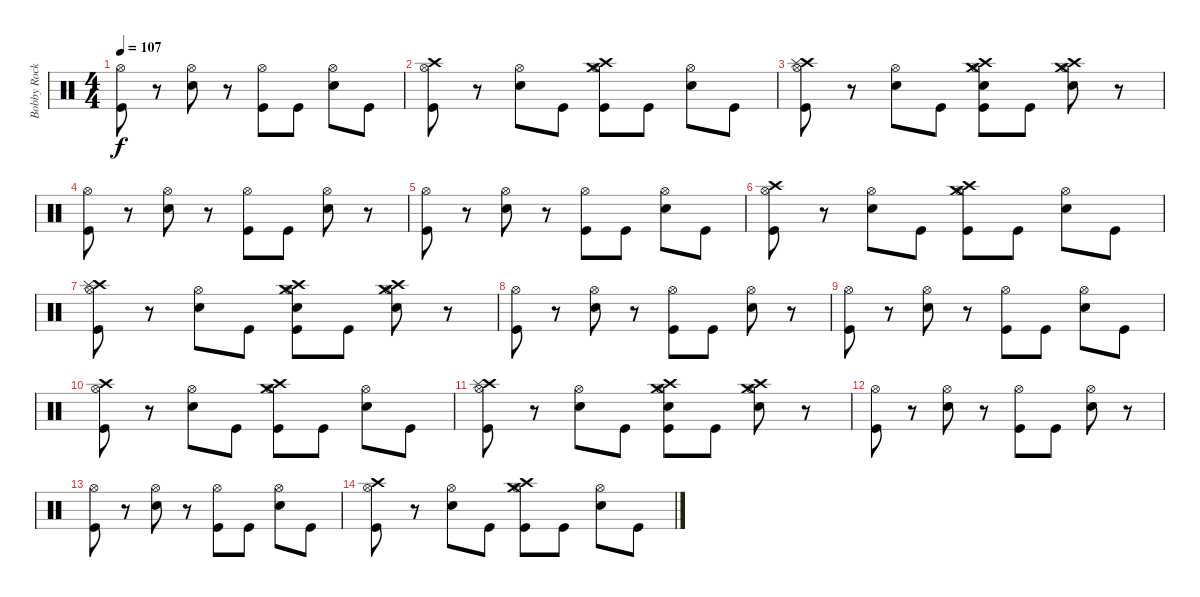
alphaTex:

\track ("Bobby Rock - drums" "Bobby Rock") {instrument percussion}
\staff {score}
\articulation defaults
\ts (4 4)
\tempo 107
\clef neutral
\ks c
("Hi-Hat (open)" "Kick (hit)").8{dy f} r.8 ("Hi-Hat (open)" "Snare (hit) 2").8 r.8 ("Hi-Hat (open)" "Kick (hit)").8 "Kick (hit)".8 ("Hi-Hat (open)" "Snare (hit) 2").8 "Kick (hit)".8 |
("Hi-Hat (open)" "Crash high (hit)" "Kick (hit)").8 r.8 ("Hi-Hat (open)" "Snare (hit) 2").8 "Kick (hit)".8 ("Hi-Hat (open)" "Crash medium (hit)" "Crash high (hit)" "Kick (hit)").8 "Kick (hit)".8 ("Hi-Hat (open)" "Snare (hit) 2").8 "Kick (hit)".8 |
("Hi-Hat (open)" "Crash high (hit)" "Splash (hit)" "Kick (hit)").8 r.8 ("Hi-Hat (open)" "Snare (hit) 2").8 "Kick (hit)".8 ("Hi-Hat (open)" "Crash medium (hit)" "Crash high (hit)" "Snare (hit) 2" "Kick (hit)").8 "Kick (hit)".8 ("Hi-Hat (open)" "Crash high (hit)" "Crash medium (hit)" "Snare (hit) 2").8 r.8 |
("Hi-Hat (open)" "Kick (hit)").8 r.8 ("Hi-Hat (open)" "Snare (hit) 2").8 r.8 ("Hi-Hat (open)" "Kick (hit)").8 "Kick (hit)".8 ("Hi-Hat (open)" "Snare (hit) 2").8 r.8 |
("Hi-Hat (open)" "Kick (hit)").8 r.8 ("Hi-Hat (open)" "Snare (hit) 2").8 r.8 ("Hi-Hat (open)" "Kick (hit)").8 "Kick (hit)".8 ("Hi-Hat (open)" "Snare (hit) 2").8 "Kick (hit)".8 |
("Hi-Hat (open)" "Crash high (hit)" "Kick (hit)").8 r.8 ("Hi-Hat (open)" "Snare (hit) 2").8 "Kick (hit)".8 ("Hi-Hat (open)" "Crash medium (hit)" "Crash high (hit)" "Kick (hit)").8 "Kick (hit)".8 ("Hi-Hat (open)" "Snare (hit) 2").8 "Kick (hit)".8 |
("Hi-Hat (open)" "Crash high (hit)" "Splash (hit)" "Kick (hit)").8 r.8 ("Hi-Hat (open)" "Snare (hit) 2").8 "Kick (hit)".8 ("Hi-Hat (open)" "Crash medium (hit)" "Crash high (hit)" "Snare (hit) 2" "Kick (hit)").8 "Kick (hit)".8 ("Hi-Hat (open)" "Crash high (hit)" "Crash medium (hit)" "Snare (hit) 2").8 r.8 |
("Hi-Hat (open)" "Kick (hit)").8 r.8 ("Hi-Hat (open)" "Snare (hit) 2").8 r.8 ("Hi-Hat (open)" "Kick (hit)").8 "Kick (hit)".8 ("Hi-Hat (open)" "Snare (hit) 2").8 r.8 |
("Hi-Hat (open)" "Kick (hit)").8 r.8 ("Hi-Hat (open)" "Snare (hit) 2").8 r.8 ("Hi-Hat (open)" "Kick (hit)").8 "Kick (hit)".8 ("Hi-Hat (open)" "Snare (hit) 2").8 "Kick (hit)".8 |
("Hi-Hat (open)" "Crash high (hit)" "Kick (hit)").8 r.8 ("Hi-Hat (open)" "Snare (hit) 2").8 "Kick (hit)".8 ("Hi-Hat (open)" "Crash medium (hit)" "Crash high (hit)" "Kick (hit)").8 "Kick (hit)".8 ("Hi-Hat (open)" "Snare (hit) 2").8 "Kick (hit)".8 |
("Hi-Hat (open)" "Crash high (hit)" "Splash (hit)" "Kick (hit)").8 r.8 ("Hi-Hat (open)" "Snare (hit) 2").8 "Kick (hit)".8 ("Hi-Hat (open)" "Crash medium (hit)" "Crash high (hit)" "Snare (hit) 2" "Kick (hit)").8 "Kick (hit)".8 ("Hi-Hat (open)" "Crash high (hit)" "Crash medium (hit)" "Snare (hit) 2").8 r.8 |
("Hi-Hat (open)" "Kick (hit)").8 r.8 ("Hi-Hat (open)" "Snare (hit) 2").8 r.8 ("Hi-Hat (open)" "Kick (hit)").8 "Kick (hit)".8 ("Hi-Hat (open)" "Snare (hit) 2").8 r.8 |
("Hi-Hat (open)" "Kick (hit)").8 r.8 ("Hi-Hat (open)" "Snare (hit) 2").8 r.8 ("Hi-Hat (open)" "Kick (hit)").8 "Kick (hit)".8 ("Hi-Hat (open)" "Snare (hit) 2").8 "Kick (hit)".8 |
("Hi-Hat (open)" "Crash high (hit)" "Kick (hit)").8 r.8 ("Hi-Hat (open)" "Snare (hit) 2").8 "Kick (hit)".8 ("Hi-Hat (open)" "Crash medium (hit)" "Crash high (hit)" "Kick (hit)").8 "Kick (hit)".8 ("Hi-Hat (open)" "Snare (hit) 2").8 "Kick (hit)".8
